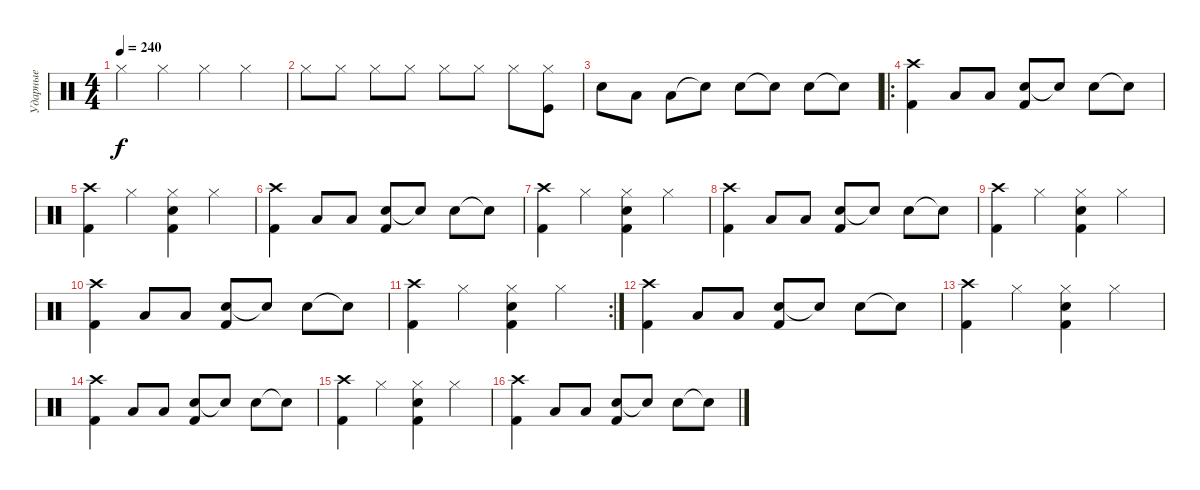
\track ("Ударные" "Ударные") {instrument percussion}
\staff {score}
\articulation defaults
\ts (4 4)
\tempo 240
\clef neutral
\ks c "Hi-Hat (closed)".4{dy f} "Hi-Hat (closed)".4 "Hi-Hat (closed)".4 "Hi-Hat (closed)".4
|
"Hi-Hat (closed)".8 "Hi-Hat (closed)".8 "Hi-Hat (closed)".8 "Hi-Hat (closed)".8 "Hi-Hat (closed)".8 "Hi-Hat (closed)".8 "Hi-Hat (closed)".8 ("Hi-Hat (closed)" "Kick (hit)").8 |
"Snare (hit) 2".8 "Low Tom (hit)".8 "Low Tom (hit)".8 "Snare (hit)"{t}.8 "Snare (hit) 2".8 "Snare (hit)"{t}.8 "Snare (hit) 2".8 "Snare (hit)"{t}.8 |
\ro
("Crash high (hit)" "Kick (hit) 2").4 "Low Tom (hit)".8 "Low Tom (hit)".8 ("Snare (hit) 2" "Kick (hit) 2").8 "Snare (hit)"{t}.8 "Snare (hit) 2".8 "Snare (hit)"{t}.8 |
("Crash high (hit)" "Kick (hit) 2").4 "Hi-Hat (closed)".4 ("Hi-Hat (closed)" "Snare (hit) 2" "Kick (hit) 2").4 "Hi-Hat (closed)".4 |
("Crash high (hit)" "Kick (hit) 2").4 "Low Tom (hit)".8 "Low Tom (hit)".8 ("Snare (hit) 2" "Kick (hit) 2").8 "Snare (hit)"{t}.8 "Snare (hit) 2".8 "Snare (hit)"{t}.8 |
("Crash high (hit)" "Kick (hit) 2").4 "Hi-Hat (closed)".4 ("Hi-Hat (closed)" "Snare (hit) 2" "Kick (hit) 2").4 "Hi-Hat (closed)".4 |
("Crash high (hit)" "Kick (hit) 2").4 "Low Tom (hit)".8 "Low Tom (hit)".8 ("Snare (hit) 2" "Kick (hit) 2").8 "Snare (hit)"{t}.8 "Snare (hit) 2".8 "Snare (hit)"{t}.8 |
("Crash high (hit)" "Kick (hit) 2").4 "Hi-Hat (closed)".4 ("Hi-Hat (closed)" "Snare (hit) 2" "Kick (hit) 2").4 "Hi-Hat (closed)".4 |
("Crash high (hit)" "Kick (hit) 2").4 "Low Tom (hit)".8 "Low Tom (hit)".8 ("Snare (hit) 2" "Kick (hit) 2").8 "Snare (hit)"{t}.8 "Snare (hit) 2".8 "Snare (hit)"{t}.8 |
\rc 2
("Crash high (hit)" "Kick (hit) 2").4 "Hi-Hat (closed)".4 ("Hi-Hat (closed)" "Snare (hit) 2" "Kick (hit) 2").4 "Hi-Hat (closed)".4 |
("Crash high (hit)" "Kick (hit) 2").4 "Low Tom (hit)".8 "Low Tom (hit)".8 ("Snare (hit) 2" "Kick (hit) 2").8 "Snare (hit)"{t}.8 "Snare (hit) 2".8 "Snare (hit)"{t}.8 |
("Crash high (hit)" "Kick (hit) 2").4 "Hi-Hat (closed)".4 ("Hi-Hat (closed)" "Snare (hit) 2" "Kick (hit) 2").4 "Hi-Hat (closed)".4 |
("Crash high (hit)" "Kick (hit) 2").4 "Low Tom (hit)".8 "Low Tom (hit)".8 ("Snare (hit) 2" "Kick (hit) 2").8 "Snare (hit)"{t}.8 "Snare (hit) 2".8 "Snare (hit)"{t}.8 |
("Crash high (hit)" "Kick (hit) 2").4 "Hi-Hat (closed)".4 ("Hi-Hat (closed)" "Snare (hit) 2" "Kick (hit) 2").4 "Hi-Hat (closed)".4 |
("Crash high (hit)" "Kick (hit) 2").4 "Low Tom (hit)".8 "Low Tom (hit)".8 ("Snare (hit) 2" "Kick (hit) 2").8 "Snare (hit)"{t}.8 "Snare (hit) 2".8 "Snare (hit)"{t}.8
